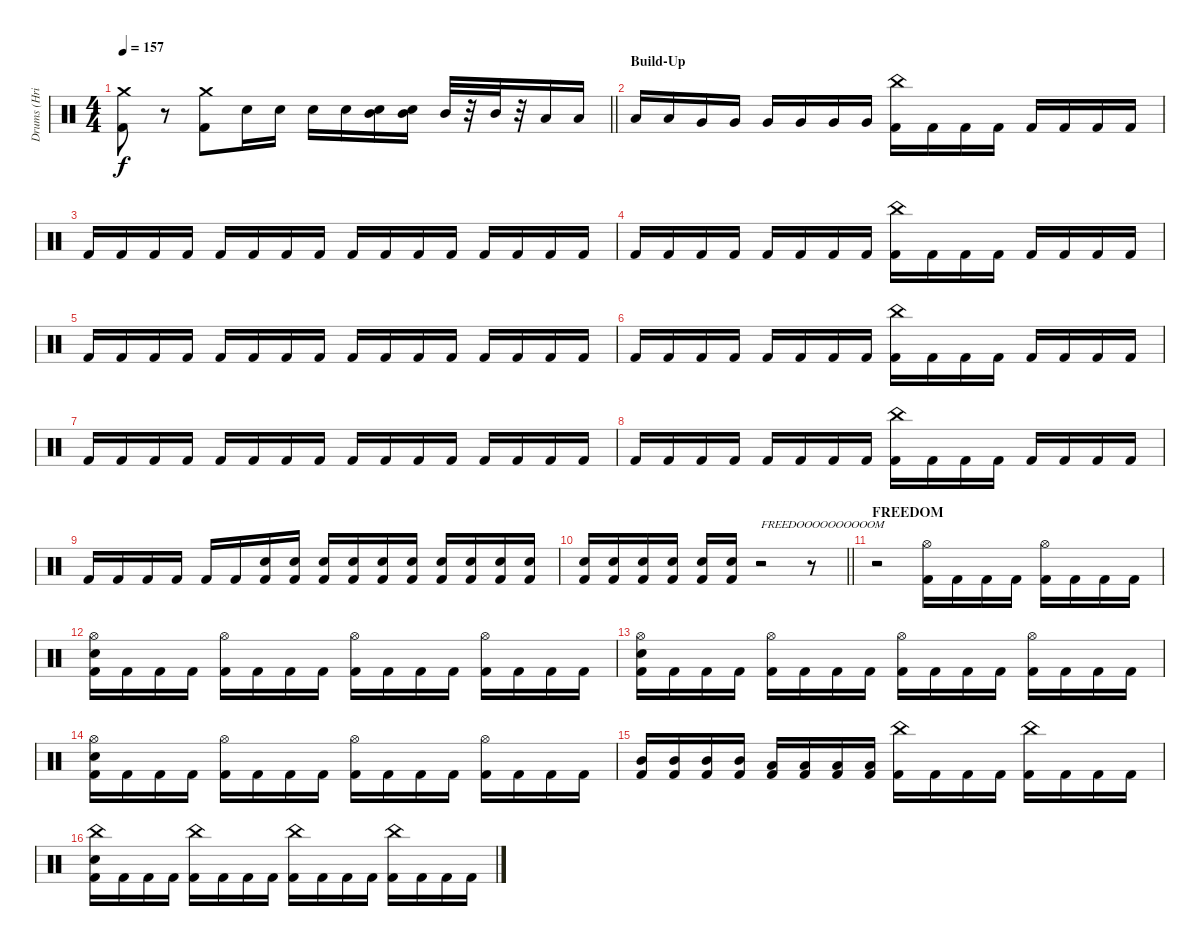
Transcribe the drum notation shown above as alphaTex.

\track ("Drums (Hriso)" "Drums (Hri") {instrument percussion}
\staff {score}
\articulation defaults
\ts (4 4)
\tempo 157
\clef neutral
\barLineRight lightlight
\ks c
("Crash medium (hit)" "Kick (hit) 2").8{dy f} r.8 ("Crash medium (hit)" "Kick (hit) 2").8 "Snare (hit) 2".16 "Snare (hit) 2".16 "Snare (hit) 2".16 "Snare (hit) 2".16 ("Mid Tom (hit)" "Snare (hit) 2").16 ("Mid Tom (hit)" "Snare (hit) 2").16 "Mid Tom (hit)".32 r.32 "Mid Tom (hit)".32 r.32 "Low Tom (hit)".16 "Low Tom (hit)".16 |
\section ("" "Build-Up")
"Low Tom (hit)".16 "Low Tom (hit)".16 "Very Low Tom (hit)".16 "Very Low Tom (hit)".16 "Very Low Tom (hit)".16 "Very Low Tom (hit)".16 "Very Low Tom (hit)".16 "Very Low Tom (hit)".16 ("Kick (hit) 2" "China (hit)").16 "Kick (hit) 2".16 "Kick (hit) 2".16 "Kick (hit) 2".16 "Kick (hit) 2".16 "Kick (hit) 2".16 "Kick (hit) 2".16 "Kick (hit) 2".16 |
"Kick (hit) 2".16 "Kick (hit) 2".16 "Kick (hit) 2".16 "Kick (hit) 2".16 "Kick (hit) 2".16 "Kick (hit) 2".16 "Kick (hit) 2".16 "Kick (hit) 2".16 "Kick (hit) 2".16 "Kick (hit) 2".16 "Kick (hit) 2".16 "Kick (hit) 2".16 "Kick (hit) 2".16 "Kick (hit) 2".16 "Kick (hit) 2".16 "Kick (hit) 2".16 |
"Kick (hit) 2".16 "Kick (hit) 2".16 "Kick (hit) 2".16 "Kick (hit) 2".16 "Kick (hit) 2".16 "Kick (hit) 2".16 "Kick (hit) 2".16 "Kick (hit) 2".16 ("Kick (hit) 2" "China (hit)").16 "Kick (hit) 2".16 "Kick (hit) 2".16 "Kick (hit) 2".16 "Kick (hit) 2".16 "Kick (hit) 2".16 "Kick (hit) 2".16 "Kick (hit) 2".16 |
"Kick (hit) 2".16 "Kick (hit) 2".16 "Kick (hit) 2".16 "Kick (hit) 2".16 "Kick (hit) 2".16 "Kick (hit) 2".16 "Kick (hit) 2".16 "Kick (hit) 2".16 "Kick (hit) 2".16 "Kick (hit) 2".16 "Kick (hit) 2".16 "Kick (hit) 2".16 "Kick (hit) 2".16 "Kick (hit) 2".16 "Kick (hit) 2".16 "Kick (hit) 2".16 |
"Kick (hit) 2".16 "Kick (hit) 2".16 "Kick (hit) 2".16 "Kick (hit) 2".16 "Kick (hit) 2".16 "Kick (hit) 2".16 "Kick (hit) 2".16 "Kick (hit) 2".16 ("Kick (hit) 2" "China (hit)").16 "Kick (hit) 2".16 "Kick (hit) 2".16 "Kick (hit) 2".16 "Kick (hit) 2".16 "Kick (hit) 2".16 "Kick (hit) 2".16 "Kick (hit) 2".16 |
"Kick (hit) 2".16 "Kick (hit) 2".16 "Kick (hit) 2".16 "Kick (hit) 2".16 "Kick (hit) 2".16 "Kick (hit) 2".16 "Kick (hit) 2".16 "Kick (hit) 2".16 "Kick (hit) 2".16 "Kick (hit) 2".16 "Kick (hit) 2".16 "Kick (hit) 2".16 "Kick (hit) 2".16 "Kick (hit) 2".16 "Kick (hit) 2".16 "Kick (hit) 2".16 |
"Kick (hit) 2".16 "Kick (hit) 2".16 "Kick (hit) 2".16 "Kick (hit) 2".16 "Kick (hit) 2".16 "Kick (hit) 2".16 "Kick (hit) 2".16 "Kick (hit) 2".16 ("Kick (hit) 2" "China (hit)").16 "Kick (hit) 2".16 "Kick (hit) 2".16 "Kick (hit) 2".16 "Kick (hit) 2".16 "Kick (hit) 2".16 "Kick (hit) 2".16 "Kick (hit) 2".16 |
"Kick (hit) 2".16 "Kick (hit) 2".16 "Kick (hit) 2".16 "Kick (hit) 2".16 "Kick (hit) 2".16 "Kick (hit) 2".16 ("Kick (hit) 2" "Snare (hit) 2").16 ("Kick (hit) 2" "Snare (hit) 2").16 ("Kick (hit) 2" "Snare (hit) 2").16 ("Kick (hit) 2" "Snare (hit) 2").16 ("Kick (hit) 2" "Snare (hit) 2").16 ("Kick (hit) 2" "Snare (hit) 2").16 ("Kick (hit) 2" "Snare (hit) 2").16 ("Kick (hit) 2" "Snare (hit) 2").16 ("Kick (hit) 2" "Snare (hit) 2").16 ("Kick (hit) 2" "Snare (hit) 2").16 |
\barLineRight lightlight
("Snare (hit) 2" "Kick (hit) 2").16 ("Kick (hit) 2" "Snare (hit) 2").16 ("Snare (hit) 2" "Kick (hit) 2").16 ("Kick (hit) 2" "Snare (hit) 2").16 ("Kick (hit) 2" "Snare (hit) 2").16 ("Kick (hit) 2" "Snare (hit) 2").16 r.2{txt "FREEDOOOOOOOOOOM"} r.8 |
\section ("" "FREEDOM")
r.2 ("Kick (hit) 2" "Hi-Hat (open)").16 "Kick (hit) 2".16 "Kick (hit) 2".16 "Kick (hit) 2".16 ("Kick (hit) 2" "Hi-Hat (open)").16 "Kick (hit) 2".16 "Kick (hit) 2".16 "Kick (hit) 2".16 |
("Snare (hit) 2" "Kick (hit) 2" "Hi-Hat (open)").16 "Kick (hit) 2".16 "Kick (hit) 2".16 "Kick (hit) 2".16 ("Kick (hit) 2" "Hi-Hat (open)").16 "Kick (hit) 2".16 "Kick (hit) 2".16 "Kick (hit) 2".16 ("Kick (hit) 2" "Hi-Hat (open)").16 "Kick (hit) 2".16 "Kick (hit) 2".16 "Kick (hit) 2".16 ("Kick (hit) 2" "Hi-Hat (open)").16 "Kick (hit) 2".16 "Kick (hit) 2".16 "Kick (hit) 2".16 |
("Kick (hit) 2" "Snare (hit) 2" "Hi-Hat (open)").16 "Kick (hit) 2".16 "Kick (hit) 2".16 "Kick (hit) 2".16 ("Kick (hit) 2" "Hi-Hat (open)").16 "Kick (hit) 2".16 "Kick (hit) 2".16 "Kick (hit) 2".16 ("Kick (hit) 2" "Hi-Hat (open)").16 "Kick (hit) 2".16 "Kick (hit) 2".16 "Kick (hit) 2".16 ("Kick (hit) 2" "Hi-Hat (open)").16 "Kick (hit) 2".16 "Kick (hit) 2".16 "Kick (hit) 2".16 |
("Snare (hit) 2" "Kick (hit) 2" "Hi-Hat (open)").16 "Kick (hit) 2".16 "Kick (hit) 2".16 "Kick (hit) 2".16 ("Kick (hit) 2" "Hi-Hat (open)").16 "Kick (hit) 2".16 "Kick (hit) 2".16 "Kick (hit) 2".16 ("Kick (hit) 2" "Hi-Hat (open)").16 "Kick (hit) 2".16 "Kick (hit) 2".16 "Kick (hit) 2".16 ("Kick (hit) 2" "Hi-Hat (open)").16 "Kick (hit) 2".16 "Kick (hit) 2".16 "Kick (hit) 2".16 |
("Kick (hit) 2" "Mid Tom (hit)").16 ("Kick (hit) 2" "Mid Tom (hit)").16 ("Kick (hit) 2" "Mid Tom (hit)").16 ("Kick (hit) 2" "Mid Tom (hit)").16 ("Kick (hit) 2" "Low Tom (hit)").16 ("Kick (hit) 2" "Low Tom (hit)").16 ("Kick (hit) 2" "Low Tom (hit)").16 ("Kick (hit) 2" "Low Tom (hit)").16 ("Kick (hit) 2" "China (hit)").16 "Kick (hit) 2".16 "Kick (hit) 2".16 "Kick (hit) 2".16 ("Kick (hit) 2" "China (hit)").16 "Kick (hit) 2".16 "Kick (hit) 2".16 "Kick (hit) 2".16 |
("Kick (hit) 2" "Snare (hit) 2" "China (hit)").16 "Kick (hit) 2".16 "Kick (hit) 2".16 "Kick (hit) 2".16 ("Kick (hit) 2" "China (hit)").16 "Kick (hit) 2".16 "Kick (hit) 2".16 "Kick (hit) 2".16 ("Kick (hit) 2" "China (hit)").16 "Kick (hit) 2".16 "Kick (hit) 2".16 "Kick (hit) 2".16 ("Kick (hit) 2" "China (hit)").16 "Kick (hit) 2".16 "Kick (hit) 2".16 "Kick (hit) 2".16
